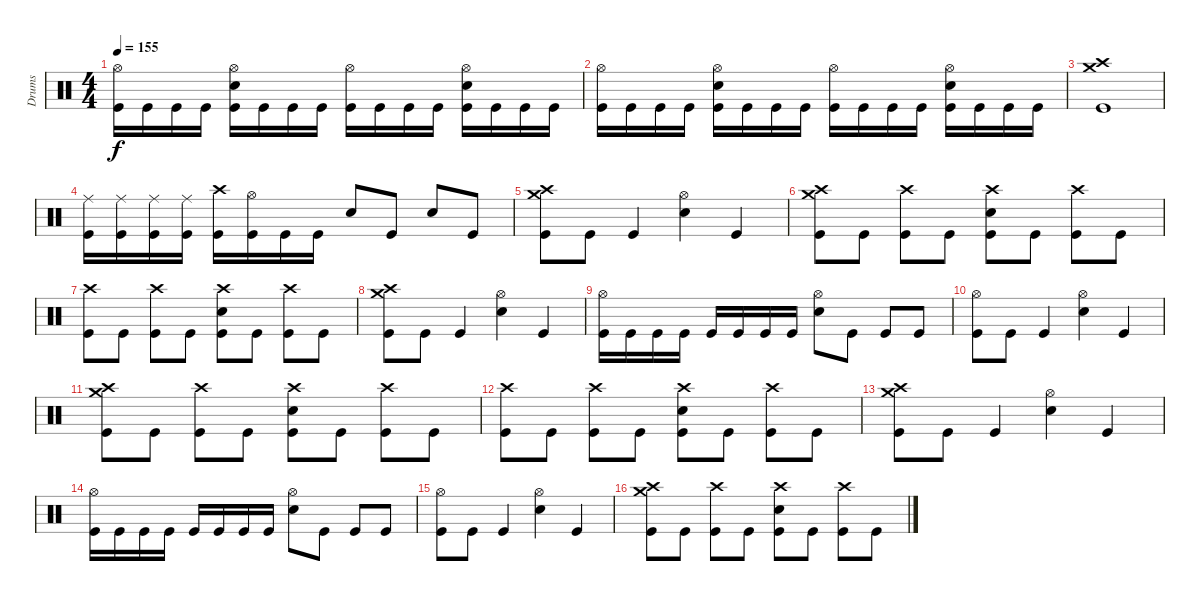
\track ("Drums" "Drums") {instrument percussion}
\staff {score}
\articulation defaults
\ts (4 4)
\tempo 155
\clef neutral
\ks c
("Hi-Hat (open)" "Kick (hit)").16{dy f} "Kick (hit)".16 "Kick (hit)".16 "Kick (hit)".16 ("Hi-Hat (open)" "Snare (hit) 2" "Kick (hit)").16 "Kick (hit)".16 "Kick (hit)".16 "Kick (hit)".16 ("Hi-Hat (open)" "Kick (hit)").16 "Kick (hit)".16 "Kick (hit)".16 "Kick (hit)".16 ("Hi-Hat (open)" "Snare (hit) 2" "Kick (hit)").16 "Kick (hit)".16 "Kick (hit)".16 "Kick (hit)".16 |
("Hi-Hat (open)" "Kick (hit)").16 "Kick (hit)".16 "Kick (hit)".16 "Kick (hit)".16 ("Hi-Hat (open)" "Snare (hit) 2" "Kick (hit)").16 "Kick (hit)".16 "Kick (hit)".16 "Kick (hit)".16 ("Hi-Hat (open)" "Kick (hit)").16 "Kick (hit)".16 "Kick (hit)".16 "Kick (hit)".16 ("Hi-Hat (open)" "Snare (hit) 2" "Kick (hit)").16 "Kick (hit)".16 "Kick (hit)".16 "Kick (hit)".16 |
("Crash high (hit)" "Crash medium (hit)" "Kick (hit)").1 |
("Ride (middle)" "Kick (hit)").16 ("Ride (middle)" "Kick (hit)").16 ("Ride (middle)" "Kick (hit)").16 ("Ride (middle)" "Kick (hit)").16 ("Crash high (hit)" "Kick (hit)").16 ("Hi-Hat (open)" "Kick (hit)").16 "Kick (hit)".16 "Kick (hit)".16 "Snare (hit) 2".8 "Kick (hit)".8 "Snare (hit) 2".8 "Kick (hit)".8 |
("Crash high (hit)" "Crash medium (hit)" "Kick (hit)").8 "Kick (hit)".8 "Kick (hit)".4 ("Hi-Hat (open)" "Snare (hit) 2").4 "Kick (hit)".4 |
("Crash high (hit)" "Crash medium (hit)" "Kick (hit)").8 "Kick (hit)".8 ("Crash high (hit)" "Kick (hit)").8 "Kick (hit)".8 ("Crash high (hit)" "Snare (hit) 2" "Kick (hit)").8 "Kick (hit)".8 ("Crash high (hit)" "Kick (hit)").8 "Kick (hit)".8 |
("Crash high (hit)" "Kick (hit)").8 "Kick (hit)".8 ("Crash high (hit)" "Kick (hit)").8 "Kick (hit)".8 ("Crash high (hit)" "Snare (hit) 2" "Kick (hit)").8 "Kick (hit)".8 ("Crash high (hit)" "Kick (hit)").8 "Kick (hit)".8 |
("Crash high (hit)" "Crash medium (hit)" "Kick (hit)").8 "Kick (hit)".8 "Kick (hit)".4 ("Hi-Hat (open)" "Snare (hit) 2").4 "Kick (hit)".4 |
("Hi-Hat (open)" "Kick (hit)").16 "Kick (hit)".16 "Kick (hit)".16 "Kick (hit)".16 "Kick (hit)".16 "Kick (hit)".16 "Kick (hit)".16 "Kick (hit)".16 ("Hi-Hat (open)" "Snare (hit) 2").8 "Kick (hit)".8 "Kick (hit)".8 "Kick (hit)".8 |
("Hi-Hat (open)" "Kick (hit)").8 "Kick (hit)".8 "Kick (hit)".4 ("Hi-Hat (open)" "Snare (hit) 2").4 "Kick (hit)".4 |
("Crash high (hit)" "Crash medium (hit)" "Kick (hit)").8 "Kick (hit)".8 ("Crash high (hit)" "Kick (hit)").8 "Kick (hit)".8 ("Crash high (hit)" "Snare (hit) 2" "Kick (hit)").8 "Kick (hit)".8 ("Crash high (hit)" "Kick (hit)").8 "Kick (hit)".8 |
("Crash high (hit)" "Kick (hit)").8 "Kick (hit)".8 ("Crash high (hit)" "Kick (hit)").8 "Kick (hit)".8 ("Crash high (hit)" "Snare (hit) 2" "Kick (hit)").8 "Kick (hit)".8 ("Crash high (hit)" "Kick (hit)").8 "Kick (hit)".8 |
("Crash high (hit)" "Crash medium (hit)" "Kick (hit)").8 "Kick (hit)".8 "Kick (hit)".4 ("Hi-Hat (open)" "Snare (hit) 2").4 "Kick (hit)".4 |
("Hi-Hat (open)" "Kick (hit)").16 "Kick (hit)".16 "Kick (hit)".16 "Kick (hit)".16 "Kick (hit)".16 "Kick (hit)".16 "Kick (hit)".16 "Kick (hit)".16 ("Hi-Hat (open)" "Snare (hit) 2").8 "Kick (hit)".8 "Kick (hit)".8 "Kick (hit)".8 |
("Hi-Hat (open)" "Kick (hit)").8 "Kick (hit)".8 "Kick (hit)".4 ("Hi-Hat (open)" "Snare (hit) 2").4 "Kick (hit)".4 |
("Crash high (hit)" "Crash medium (hit)" "Kick (hit)").8 "Kick (hit)".8 ("Crash high (hit)" "Kick (hit)").8 "Kick (hit)".8 ("Crash high (hit)" "Snare (hit) 2" "Kick (hit)").8 "Kick (hit)".8 ("Crash high (hit)" "Kick (hit)").8 "Kick (hit)".8
